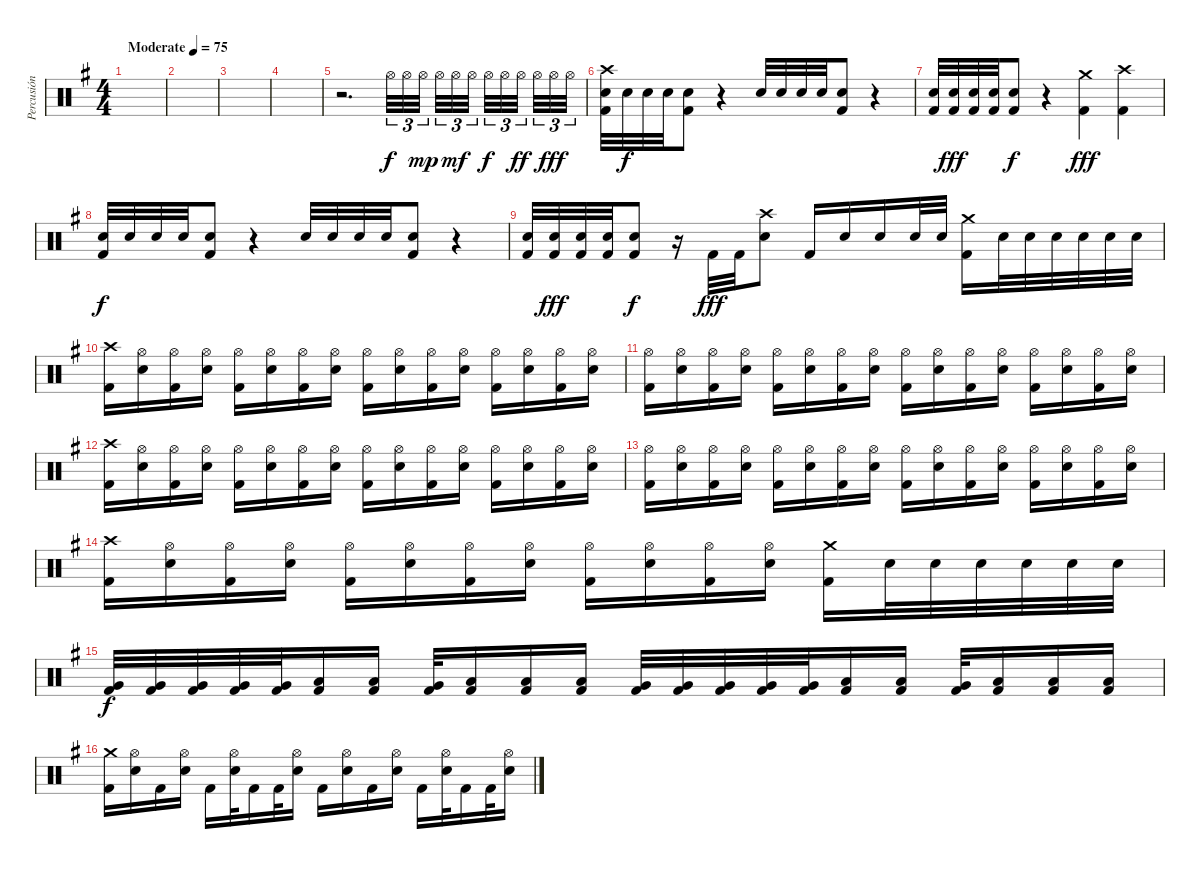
\track ("Percusión" "Percusión") {instrument percussion}
\staff {score}
\articulation defaults
\ts (4 4)
\tempo (75 "Moderate")
\clef neutral
\ks g
|
|
|
|
r.2{d} "Hi-Hat (open)".32{tu (3 2)} "Hi-Hat (open)".32{tu (3 2)} "Hi-Hat (open)".32{tu (3 2) dy mp beam splitsecondary} "Hi-Hat (open)".32{tu (3 2)} "Hi-Hat (open)".32{tu (3 2) dy mf} "Hi-Hat (open)".32{tu (3 2) beam splitsecondary} "Hi-Hat (open)".32{tu (3 2) dy f} "Hi-Hat (open)".32{tu (3 2)} "Hi-Hat (open)".32{tu (3 2) dy ff beam splitsecondary} "Hi-Hat (open)".32{tu (3 2)} "Hi-Hat (open)".32{tu (3 2) dy fff} "Hi-Hat (open)".32{tu (3 2)} |
("Crash high (hit)" "Electric Snare (hit)" "Kick (hit) 2").32 "Electric Snare (hit)".32{dy f} "Electric Snare (hit)".32 "Electric Snare (hit)".32 ("Electric Snare (hit)" "Kick (hit) 2").8 r.4 "Electric Snare (hit)".32 "Electric Snare (hit)".32 "Electric Snare (hit)".32 "Electric Snare (hit)".32 ("Electric Snare (hit)" "Kick (hit) 2").8 r.4 |
("Electric Snare (hit)" "Kick (hit) 2").32 ("Electric Snare (hit)" "Kick (hit) 2").32{dy fff} ("Electric Snare (hit)" "Kick (hit) 2").32 ("Electric Snare (hit)" "Kick (hit) 2").32 ("Electric Snare (hit)" "Kick (hit) 2").8{dy f} r.4 ("Crash medium (hit)" "Kick (hit) 2").4{dy fff} ("Crash high (hit)" "Kick (hit) 2").4 |
("Electric Snare (hit)" "Kick (hit) 2").32{dy f} "Electric Snare (hit)".32 "Electric Snare (hit)".32 "Electric Snare (hit)".32 ("Electric Snare (hit)" "Kick (hit) 2").8 r.4 "Electric Snare (hit)".32 "Electric Snare (hit)".32 "Electric Snare (hit)".32 "Electric Snare (hit)".32 ("Electric Snare (hit)" "Kick (hit) 2").8 r.4 |
("Electric Snare (hit)" "Kick (hit) 2").32 ("Electric Snare (hit)" "Kick (hit) 2").32{dy fff} ("Electric Snare (hit)" "Kick (hit) 2").32 ("Electric Snare (hit)" "Kick (hit) 2").32 ("Electric Snare (hit)" "Kick (hit) 2").8{dy f} r.16 "Kick (hit) 2".32{dy fff} "Kick (hit) 2".32 ("Crash high (hit)" "Electric Snare (hit)").8 "Kick (hit) 2".16 "Electric Snare (hit)".16 "Electric Snare (hit)".16 "Electric Snare (hit)".32 "Electric Snare (hit)".32 ("Crash medium (hit)" "Kick (hit) 2").16 "Electric Snare (hit)".32 "Electric Snare (hit)".32 "Electric Snare (hit)".32 "Electric Snare (hit)".32 "Electric Snare (hit)".32 "Electric Snare (hit)".32 |
("Crash high (hit)" "Kick (hit) 2").16 ("Hi-Hat (open)" "Electric Snare (hit)").16 ("Hi-Hat (open)" "Kick (hit) 2").16 ("Hi-Hat (open)" "Electric Snare (hit)").16 ("Hi-Hat (open)" "Kick (hit) 2").16 ("Hi-Hat (open)" "Electric Snare (hit)").16 ("Hi-Hat (open)" "Kick (hit) 2").16 ("Hi-Hat (open)" "Electric Snare (hit)").16 ("Hi-Hat (open)" "Kick (hit) 2").16 ("Hi-Hat (open)" "Electric Snare (hit)").16 ("Hi-Hat (open)" "Kick (hit) 2").16 ("Hi-Hat (open)" "Electric Snare (hit)").16 ("Hi-Hat (open)" "Kick (hit) 2").16 ("Hi-Hat (open)" "Electric Snare (hit)").16 ("Hi-Hat (open)" "Kick (hit) 2").16 ("Hi-Hat (open)" "Electric Snare (hit)").16 |
("Hi-Hat (open)" "Kick (hit) 2").16 ("Hi-Hat (open)" "Electric Snare (hit)").16 ("Hi-Hat (open)" "Kick (hit) 2").16 ("Hi-Hat (open)" "Electric Snare (hit)").16 ("Hi-Hat (open)" "Kick (hit) 2").16 ("Hi-Hat (open)" "Electric Snare (hit)").16 ("Hi-Hat (open)" "Kick (hit) 2").16 ("Hi-Hat (open)" "Electric Snare (hit)").16 ("Hi-Hat (open)" "Kick (hit) 2").16 ("Hi-Hat (open)" "Electric Snare (hit)").16 ("Hi-Hat (open)" "Kick (hit) 2").16 ("Hi-Hat (open)" "Electric Snare (hit)").16 ("Hi-Hat (open)" "Kick (hit) 2").16 ("Hi-Hat (open)" "Electric Snare (hit)").16 ("Hi-Hat (open)" "Kick (hit) 2").16 ("Hi-Hat (open)" "Electric Snare (hit)").16 |
("Crash high (hit)" "Kick (hit) 2").16 ("Hi-Hat (open)" "Electric Snare (hit)").16 ("Hi-Hat (open)" "Kick (hit) 2").16 ("Hi-Hat (open)" "Electric Snare (hit)").16 ("Hi-Hat (open)" "Kick (hit) 2").16 ("Hi-Hat (open)" "Electric Snare (hit)").16 ("Hi-Hat (open)" "Kick (hit) 2").16 ("Hi-Hat (open)" "Electric Snare (hit)").16 ("Hi-Hat (open)" "Kick (hit) 2").16 ("Hi-Hat (open)" "Electric Snare (hit)").16 ("Hi-Hat (open)" "Kick (hit) 2").16 ("Hi-Hat (open)" "Electric Snare (hit)").16 ("Hi-Hat (open)" "Kick (hit) 2").16 ("Hi-Hat (open)" "Electric Snare (hit)").16 ("Hi-Hat (open)" "Kick (hit) 2").16 ("Hi-Hat (open)" "Electric Snare (hit)").16 |
("Hi-Hat (open)" "Kick (hit) 2").16 ("Hi-Hat (open)" "Electric Snare (hit)").16 ("Hi-Hat (open)" "Kick (hit) 2").16 ("Hi-Hat (open)" "Electric Snare (hit)").16 ("Hi-Hat (open)" "Kick (hit) 2").16 ("Hi-Hat (open)" "Electric Snare (hit)").16 ("Hi-Hat (open)" "Kick (hit) 2").16 ("Hi-Hat (open)" "Electric Snare (hit)").16 ("Hi-Hat (open)" "Kick (hit) 2").16 ("Hi-Hat (open)" "Electric Snare (hit)").16 ("Hi-Hat (open)" "Kick (hit) 2").16 ("Hi-Hat (open)" "Electric Snare (hit)").16 ("Hi-Hat (open)" "Kick (hit) 2").16 ("Hi-Hat (open)" "Electric Snare (hit)").16 ("Hi-Hat (open)" "Kick (hit) 2").16 ("Hi-Hat (open)" "Electric Snare (hit)").16 |
("Crash high (hit)" "Kick (hit) 2").16 ("Hi-Hat (open)" "Electric Snare (hit)").16 ("Hi-Hat (open)" "Kick (hit) 2").16 ("Hi-Hat (open)" "Electric Snare (hit)").16 ("Hi-Hat (open)" "Kick (hit) 2").16 ("Hi-Hat (open)" "Electric Snare (hit)").16 ("Hi-Hat (open)" "Kick (hit) 2").16 ("Hi-Hat (open)" "Electric Snare (hit)").16 ("Hi-Hat (open)" "Kick (hit) 2").16 ("Hi-Hat (open)" "Electric Snare (hit)").16 ("Hi-Hat (open)" "Kick (hit) 2").16 ("Hi-Hat (open)" "Electric Snare (hit)").16 ("Crash medium (hit)" "Kick (hit) 2").16 "Electric Snare (hit)".32 "Electric Snare (hit)".32 "Electric Snare (hit)".32 "Electric Snare (hit)".32 "Electric Snare (hit)".32 "Electric Snare (hit)".32 |
("Very Low Tom (hit)" "Kick (hit) 2").32{dy f} ("Very Low Tom (hit)" "Kick (hit) 2").32 ("Very Low Tom (hit)" "Kick (hit) 2").32 ("Very Low Tom (hit)" "Kick (hit) 2").32 ("Very Low Tom (hit)" "Kick (hit) 2").32 ("Low Floor Tom (hit)" "Kick (hit) 2").16 ("Low Floor Tom (hit)" "Kick (hit) 2").16 ("Very Low Tom (hit)" "Kick (hit) 2").32 ("Low Floor Tom (hit)" "Kick (hit) 2").16 ("Low Floor Tom (hit)" "Kick (hit) 2").16 ("Low Floor Tom (hit)" "Kick (hit) 2").16 ("Very Low Tom (hit)" "Kick (hit) 2").32 ("Very Low Tom (hit)" "Kick (hit) 2").32 ("Very Low Tom (hit)" "Kick (hit) 2").32 ("Very Low Tom (hit)" "Kick (hit) 2").32 ("Very Low Tom (hit)" "Kick (hit) 2").32 ("Low Floor Tom (hit)" "Kick (hit) 2").16 ("Low Floor Tom (hit)" "Kick (hit) 2").16 ("Very Low Tom (hit)" "Kick (hit) 2").32 ("Low Floor Tom (hit)" "Kick (hit) 2").16 ("Low Floor Tom (hit)" "Kick (hit) 2").16 ("Low Floor Tom (hit)" "Kick (hit) 2").16 |
("Crash medium (hit)" "Kick (hit) 2").16 ("Hi-Hat (open)" "Electric Snare (hit)").16 "Kick (hit) 2".16 ("Hi-Hat (open)" "Electric Snare (hit)").16 "Kick (hit) 2".16 ("Hi-Hat (open)" "Electric Snare (hit)").32 "Kick (hit) 2".16 "Kick (hit) 2".32 ("Hi-Hat (open)" "Electric Snare (hit)").16 "Kick (hit) 2".16 ("Hi-Hat (open)" "Electric Snare (hit)").16 "Kick (hit) 2".16 ("Hi-Hat (open)" "Electric Snare (hit)").16 "Kick (hit) 2".16 ("Hi-Hat (open)" "Electric Snare (hit)").32 "Kick (hit) 2".16 "Kick (hit) 2".32 ("Hi-Hat (open)" "Electric Snare (hit)").16
